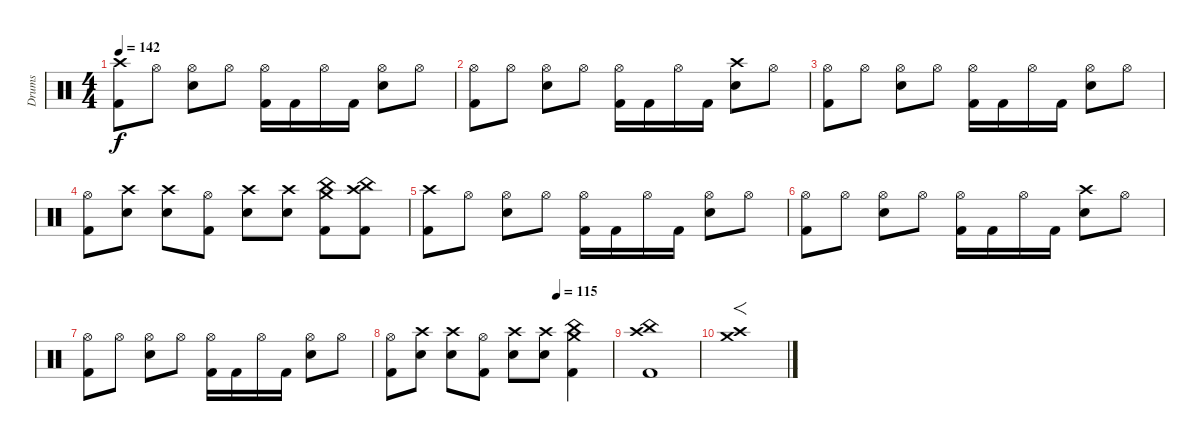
\track ("Drums" "Drums") {instrument percussion}
\staff {score}
\articulation defaults
\ts (4 4)
\tempo 142
\clef neutral
\ks c
("Crash high (hit)" "Kick (hit) 2").8{dy f} "Hi-Hat (open)".8 ("Hi-Hat (open)" "Snare (hit) 2").8 "Hi-Hat (open)".8 ("Hi-Hat (open)" "Kick (hit) 2").16 "Kick (hit) 2".16 "Hi-Hat (open)".16 "Kick (hit) 2".16 ("Hi-Hat (open)" "Snare (hit) 2").8 "Hi-Hat (open)".8 |
("Hi-Hat (open)" "Kick (hit) 2").8 "Hi-Hat (open)".8 ("Hi-Hat (open)" "Snare (hit) 2").8 "Hi-Hat (open)".8 ("Hi-Hat (open)" "Kick (hit) 2").16 "Kick (hit) 2".16 "Hi-Hat (open)".16 "Kick (hit) 2".16 ("Crash high (hit)" "Snare (hit) 2").8 "Hi-Hat (open)".8 |
("Hi-Hat (open)" "Kick (hit) 2").8 "Hi-Hat (open)".8 ("Hi-Hat (open)" "Snare (hit) 2").8 "Hi-Hat (open)".8 ("Hi-Hat (open)" "Kick (hit) 2").16 "Kick (hit) 2".16 "Hi-Hat (open)".16 "Kick (hit) 2".16 ("Hi-Hat (open)" "Snare (hit) 2").8 "Hi-Hat (open)".8 |
("Hi-Hat (open)" "Kick (hit) 2").8 ("Crash high (hit)" "Snare (hit) 2").8 ("Crash high (hit)" "Snare (hit) 2").8 ("Hi-Hat (open)" "Kick (hit) 2").8 ("Crash high (hit)" "Snare (hit) 2").8 ("Crash high (hit)" "Snare (hit) 2").8 ("China (hit)" "Crash medium (hit)" "Kick (hit) 2").8 ("China (hit)" "Crash high (hit)" "Kick (hit) 2").8 |
("Crash high (hit)" "Kick (hit) 2").8 "Hi-Hat (open)".8 ("Hi-Hat (open)" "Snare (hit) 2").8 "Hi-Hat (open)".8 ("Hi-Hat (open)" "Kick (hit) 2").16 "Kick (hit) 2".16 "Hi-Hat (open)".16 "Kick (hit) 2".16 ("Hi-Hat (open)" "Snare (hit) 2").8 "Hi-Hat (open)".8 |
("Hi-Hat (open)" "Kick (hit) 2").8 "Hi-Hat (open)".8 ("Hi-Hat (open)" "Snare (hit) 2").8 "Hi-Hat (open)".8 ("Hi-Hat (open)" "Kick (hit) 2").16 "Kick (hit) 2".16 "Hi-Hat (open)".16 "Kick (hit) 2".16 ("Crash high (hit)" "Snare (hit) 2").8 "Hi-Hat (open)".8 |
("Hi-Hat (open)" "Kick (hit) 2").8 "Hi-Hat (open)".8 ("Hi-Hat (open)" "Snare (hit) 2").8 "Hi-Hat (open)".8 ("Hi-Hat (open)" "Kick (hit) 2").16 "Kick (hit) 2".16 "Hi-Hat (open)".16 "Kick (hit) 2".16 ("Hi-Hat (open)" "Snare (hit) 2").8 "Hi-Hat (open)".8 |
\tempo (115 0.75)
("Hi-Hat (open)" "Kick (hit) 2").8 ("Crash high (hit)" "Snare (hit) 2").8 ("Crash high (hit)" "Snare (hit) 2").8 ("Hi-Hat (open)" "Kick (hit) 2").8 ("Crash high (hit)" "Snare (hit) 2").8 ("Crash high (hit)" "Snare (hit) 2").8 ("China (hit)" "Crash medium (hit)" "Kick (hit) 2").4 |
("China (hit)" "Crash high (hit)" "Kick (hit) 2").1 |
("Crash medium (hit)" "Crash high (hit)").1{f}
